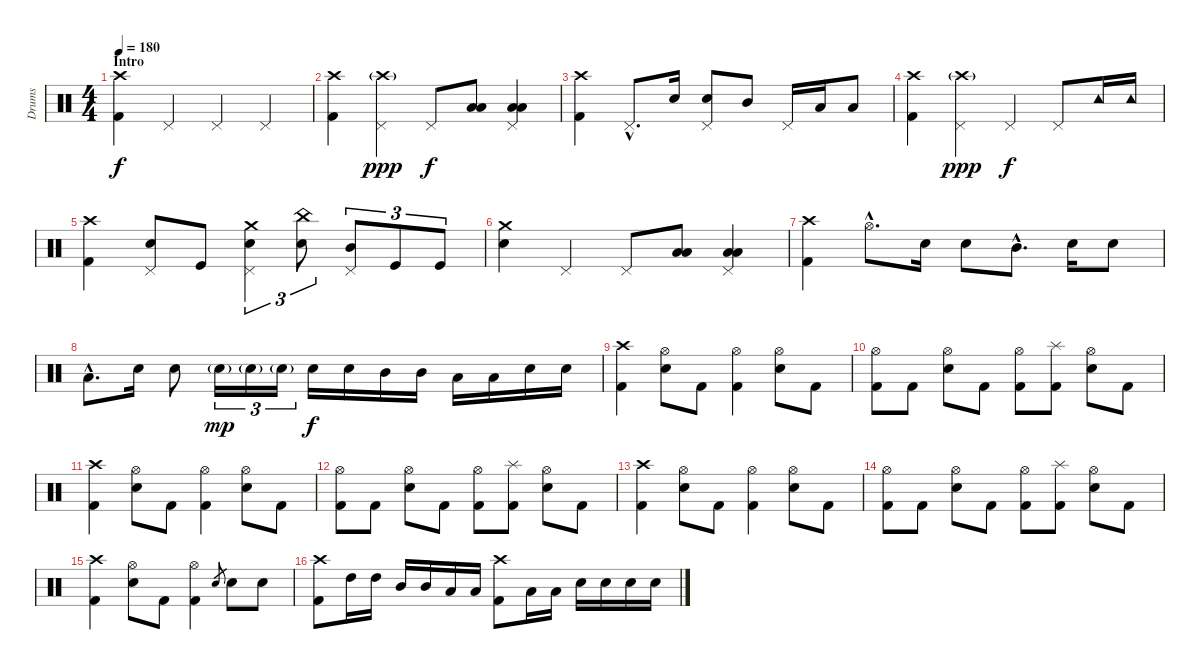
\track ("Drums" "Drums") {instrument percussion}
\staff {score}
\articulation defaults
\ts (4 4)
\section ("" "Intro")
\tempo 180
\tempo 140
\tempo 180
\clef neutral
\ks c
("Crash high (hit)" "Kick (hit) 2").4{dy f} "Pedal Hi-Hat (hit)".4 "Pedal Hi-Hat (hit)".4 "Pedal Hi-Hat (hit)".4 |
("Crash high (hit)" "Kick (hit) 2").4 ("Crash high (hit)"{g} "Pedal Hi-Hat (hit)").4{dy ppp} "Pedal Hi-Hat (hit)".8{dy f} ("Low Tom (hit)" "Low Floor Tom (hit)").8 ("Low Tom (hit)" "Low Floor Tom (hit)" "Pedal Hi-Hat (hit)").4 |
("Crash high (hit)" "Kick (hit) 2").4 "Pedal Hi-Hat (hit)"{hac}.8{d} "Electric Snare (hit)".16 ("Electric Snare (hit)" "Pedal Hi-Hat (hit)").8 "Mid Tom (hit)".8 "Pedal Hi-Hat (hit)".16 "Low Tom (hit)".16 "Low Tom (hit)".8 |
("Crash high (hit)" "Kick (hit) 2").4 ("Crash high (hit)"{g} "Pedal Hi-Hat (hit)").4{dy ppp} "Pedal Hi-Hat (hit)".4{dy f} "Pedal Hi-Hat (hit)".8 "Tambourine (hit)".16 "Tambourine (hit)".16 |
("Crash high (hit)" "Kick (hit) 2").4 ("Electric Snare (hit)" "Pedal Hi-Hat (hit)").8 "Kick (hit)".8 ("Crash medium (hit)" "Electric Snare (hit)" "Pedal Hi-Hat (hit)").4{tu (3 2)} ("China (hit)" "Electric Snare (hit)").8{tu (3 2)} ("Mid Tom (hit)" "Pedal Hi-Hat (hit)").8{tu (3 2)} "Kick (hit)".8{tu (3 2)} "Kick (hit)".8{tu (3 2)} |
("Crash medium (hit)" "Electric Snare (hit)").4 "Pedal Hi-Hat (hit)".4 "Pedal Hi-Hat (hit)".8 ("Low Tom (hit)" "Low Floor Tom (hit)").8 ("Low Tom (hit)" "Low Floor Tom (hit)" "Pedal Hi-Hat (hit)").4 |
("Crash high (hit)" "Kick (hit) 2").4 "Hi-Hat (open)"{hac}.8{d} "Electric Snare (hit)".16 "Electric Snare (hit)".8 "Mid Tom (hit)"{hac}.8{d} "Electric Snare (hit)".16 "Electric Snare (hit)".8 |
"Low Tom (hit)"{hac}.8{d} "Electric Snare (hit)".16 "Electric Snare (hit)".8 "Electric Snare (hit)"{g}.16{tu (3 2) dy mp} "Electric Snare (hit)"{g}.16{tu (3 2)} "Electric Snare (hit)"{g}.16{tu (3 2)} "Electric Snare (hit)".16{dy f} "Electric Snare (hit)".16 "Mid Tom (hit)".16 "Mid Tom (hit)".16 "Low Tom (hit)".16 "Low Tom (hit)".16 "Electric Snare (hit)".16 "Electric Snare (hit)".16 |
("Crash high (hit)" "Kick (hit) 2").4 ("Hi-Hat (open)" "Electric Snare (hit)").8 "Kick (hit) 2".8 ("Hi-Hat (open)" "Kick (hit) 2").4 ("Hi-Hat (open)" "Electric Snare (hit)").8 "Kick (hit) 2".8 |
("Hi-Hat (open)" "Kick (hit) 2").8 "Kick (hit) 2".8 ("Hi-Hat (open)" "Electric Snare (hit)").8 "Kick (hit) 2".8 ("Hi-Hat (open)" "Kick (hit) 2").8 ("Splash (hit)" "Kick (hit) 2").8 ("Hi-Hat (open)" "Electric Snare (hit)").8 "Kick (hit) 2".8 |
("Crash high (hit)" "Kick (hit) 2").4 ("Hi-Hat (open)" "Electric Snare (hit)").8 "Kick (hit) 2".8 ("Hi-Hat (open)" "Kick (hit) 2").4 ("Hi-Hat (open)" "Electric Snare (hit)").8 "Kick (hit) 2".8 |
("Hi-Hat (open)" "Kick (hit) 2").8 "Kick (hit) 2".8 ("Hi-Hat (open)" "Electric Snare (hit)").8 "Kick (hit) 2".8 ("Hi-Hat (open)" "Kick (hit) 2").8 ("Splash (hit)" "Kick (hit) 2").8 ("Hi-Hat (open)" "Electric Snare (hit)").8 "Kick (hit) 2".8 |
("Crash high (hit)" "Kick (hit) 2").4 ("Hi-Hat (open)" "Electric Snare (hit)").8 "Kick (hit) 2".8 ("Hi-Hat (open)" "Kick (hit) 2").4 ("Hi-Hat (open)" "Electric Snare (hit)").8 "Kick (hit) 2".8 |
("Hi-Hat (open)" "Kick (hit) 2").8 "Kick (hit) 2".8 ("Hi-Hat (open)" "Electric Snare (hit)").8 "Kick (hit) 2".8 ("Hi-Hat (open)" "Kick (hit) 2").8 ("Splash (hit)" "Kick (hit) 2").8 ("Hi-Hat (open)" "Electric Snare (hit)").8 "Kick (hit) 2".8 |
("Crash high (hit)" "Kick (hit) 2").4 ("Hi-Hat (open)" "Electric Snare (hit)").8 "Kick (hit) 2".8 ("Hi-Hat (open)" "Kick (hit) 2").4 "Electric Snare (hit)".8{gr} "Electric Snare (hit)".8 "Electric Snare (hit)".8 |
("Crash high (hit)" "Kick (hit) 2").8 "High Tom (hit)".16 "High Tom (hit)".16 "Mid Tom (hit)".16 "Mid Tom (hit)".16 "Low Tom (hit)".16 "Low Tom (hit)".16 ("Crash high (hit)" "Kick (hit) 2").8 "Low Tom (hit)".16 "Low Tom (hit)".16 "Electric Snare (hit)".16 "Electric Snare (hit)".16 "Electric Snare (hit)".16 "Electric Snare (hit)".16
